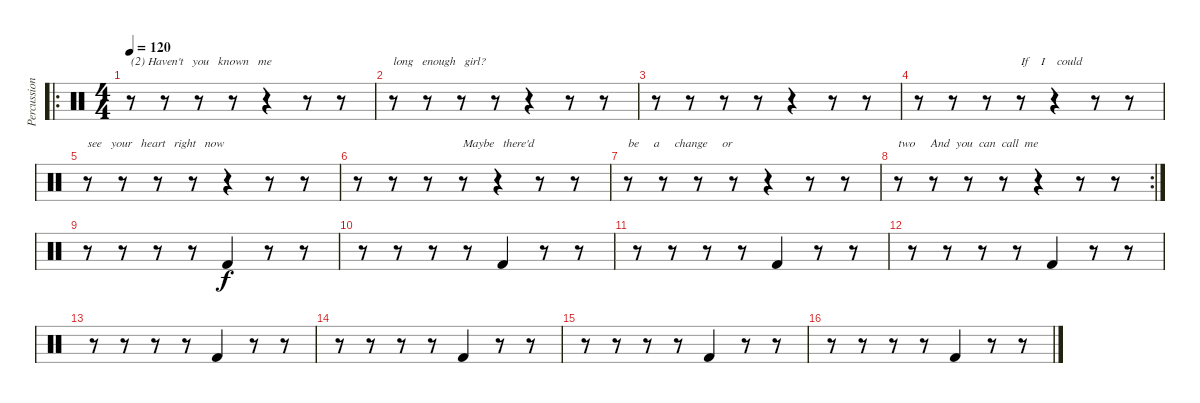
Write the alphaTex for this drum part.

\track ("Percussion" "Percussion") {instrument percussion}
\staff {score}
\articulation defaults
\ro
\ts (4 4)
\tempo 120
\clef neutral
\ks c
r.8{txt "(2) Haven't   you   known   me " dy f} r.8 r.8 r.8 r.4 r.8 r.8 |
r.8{txt "long   enough   girl?"} r.8 r.8 r.8 r.4 r.8 r.8 |
r.8 r.8 r.8 r.8 r.4 r.8 r.8 |
r.8 r.8 r.8 r.8{txt "If    I    could"} r.4 r.8 r.8 |
r.8{txt "see   your   heart   right   now"} r.8 r.8 r.8 r.4 r.8 r.8 |
r.8 r.8 r.8 r.8{txt "Maybe   there'd    "} r.4 r.8 r.8 |
r.8{txt "be     a     change     or"} r.8 r.8 r.8 r.4 r.8 r.8 |
\rc 2
r.8{txt "two     And  you  can  call  me"} r.8 r.8 r.8 r.4 r.8 r.8 |
r.8 r.8 r.8 r.8 "Kick (hit) 2".4 r.8 r.8 |
r.8 r.8 r.8 r.8 "Kick (hit) 2".4 r.8 r.8 |
r.8 r.8 r.8 r.8 "Kick (hit) 2".4 r.8 r.8 |
r.8 r.8 r.8 r.8 "Kick (hit) 2".4 r.8 r.8 |
r.8 r.8 r.8 r.8 "Kick (hit) 2".4 r.8 r.8 |
r.8 r.8 r.8 r.8 "Kick (hit) 2".4 r.8 r.8 |
r.8 r.8 r.8 r.8 "Kick (hit) 2".4 r.8 r.8 |
r.8 r.8 r.8 r.8 "Kick (hit) 2".4 r.8 r.8
